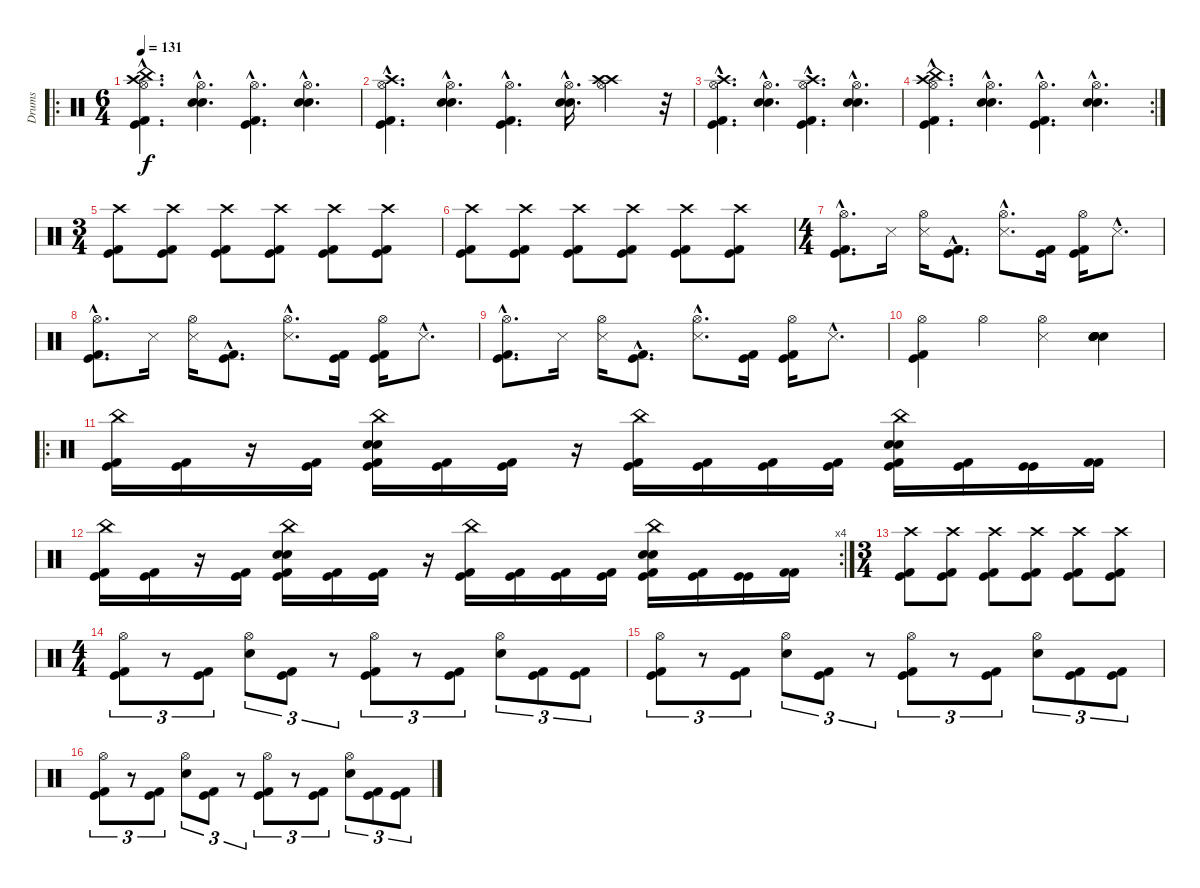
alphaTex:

\track ("Drums" "Drums") {instrument percussion}
\staff {score}
\articulation defaults
\ro
\ts (6 4)
\tempo 131
\clef neutral
\ks c
("China (hit)"{hac} "Hi-Hat (open)"{hac} "Crash high (hit)"{hac} "Kick (hit) 2"{hac} "Kick (hit)"{hac}).4{d dy f} ("Hi-Hat (open)"{hac} "Snare (hit) 2"{hac} "Electric Snare (hit)"{hac}).4{d} ("Hi-Hat (open)"{hac} "Kick (hit)"{hac} "Kick (hit) 2"{hac}).4{d} ("Hi-Hat (open)"{hac} "Snare (hit) 2"{hac} "Electric Snare (hit)"{hac}).4{d} |
("Hi-Hat (open)"{hac} "Crash high (hit)"{hac} "Kick (hit) 2"{hac} "Kick (hit)"{hac}).4{d} ("Hi-Hat (open)"{hac} "Snare (hit) 2"{hac} "Electric Snare (hit)"{hac}).4{d} ("Hi-Hat (open)"{hac} "Kick (hit)"{hac} "Kick (hit) 2"{hac}).4{d} ("Hi-Hat (open)"{hac} "Snare (hit) 2"{hac} "Electric Snare (hit)"{hac}).16{d} ("Hi-Hat (open)" "Crash high (hit)" "Crash high (hit)").4 r.32 |
("Hi-Hat (open)"{hac} "Crash high (hit)"{hac} "Kick (hit) 2"{hac} "Kick (hit)"{hac}).4{d} ("Hi-Hat (open)"{hac} "Snare (hit) 2"{hac} "Electric Snare (hit)"{hac}).4{d} ("Hi-Hat (open)"{hac} "Crash high (hit)"{hac} "Kick (hit)"{hac} "Kick (hit) 2"{hac}).4{d} ("Hi-Hat (open)"{hac} "Snare (hit) 2"{hac} "Electric Snare (hit)"{hac}).4{d} |
\rc 2
("China (hit)"{hac} "Hi-Hat (open)"{hac} "Crash high (hit)"{hac} "Kick (hit) 2"{hac} "Kick (hit)"{hac}).4{d} ("Hi-Hat (open)"{hac} "Snare (hit) 2"{hac} "Electric Snare (hit)"{hac}).4{d} ("Hi-Hat (open)"{hac} "Kick (hit)"{hac} "Kick (hit) 2"{hac}).4{d} ("Hi-Hat (open)"{hac} "Snare (hit) 2"{hac} "Electric Snare (hit)"{hac}).4{d} |
\ts (3 4)
("Crash high (hit)" "Kick (hit) 2" "Kick (hit)").8 ("Crash high (hit)" "Kick (hit)" "Kick (hit) 2").8 ("Crash high (hit)" "Kick (hit)" "Kick (hit) 2").8 ("Crash high (hit)" "Kick (hit)" "Kick (hit) 2").8 ("Crash high (hit)" "Kick (hit) 2" "Kick (hit)").8 ("Crash high (hit)" "Kick (hit) 2" "Kick (hit)").8 |
("Crash high (hit)" "Kick (hit) 2" "Kick (hit)").8 ("Crash high (hit)" "Kick (hit)" "Kick (hit) 2").8 ("Crash high (hit)" "Kick (hit)" "Kick (hit) 2").8 ("Crash high (hit)" "Kick (hit)" "Kick (hit) 2").8 ("Crash high (hit)" "Kick (hit) 2" "Kick (hit)").8 ("Crash high (hit)" "Kick (hit) 2" "Kick (hit)").8 |
\ts (4 4)
("Hi-Hat (open)"{hac} "Kick (hit)"{hac} "Kick (hit) 2"{hac}).8{d} "Snare (side stick) 3".16 ("Hi-Hat (open)" "Snare (side stick) 3").16 ("Kick (hit) 2"{hac} "Kick (hit)"{hac}).8{d} ("Hi-Hat (open)"{hac} "Snare (side stick) 3"{hac}).8{d} ("Kick (hit)" "Kick (hit) 2").16 ("Hi-Hat (open)" "Kick (hit)" "Kick (hit) 2").16 "Snare (side stick) 3"{hac}.8{d} |
("Hi-Hat (open)"{hac} "Kick (hit)"{hac} "Kick (hit) 2"{hac}).8{d} "Snare (side stick) 3".16 ("Hi-Hat (open)" "Snare (side stick) 3").16 ("Kick (hit) 2"{hac} "Kick (hit)"{hac}).8{d} ("Hi-Hat (open)"{hac} "Snare (side stick) 3"{hac}).8{d} ("Kick (hit)" "Kick (hit) 2").16 ("Hi-Hat (open)" "Kick (hit)" "Kick (hit) 2").16 "Snare (side stick) 3"{hac}.8{d} |
("Hi-Hat (open)"{hac} "Kick (hit)"{hac} "Kick (hit) 2"{hac}).8{d} "Snare (side stick) 3".16 ("Hi-Hat (open)" "Snare (side stick) 3").16 ("Kick (hit) 2"{hac} "Kick (hit)"{hac}).8{d} ("Hi-Hat (open)"{hac} "Snare (side stick) 3"{hac}).8{d} ("Kick (hit)" "Kick (hit) 2").16 ("Hi-Hat (open)" "Kick (hit)" "Kick (hit) 2").16 "Snare (side stick) 3"{hac}.8{d} |
("Hi-Hat (open)" "Kick (hit)" "Kick (hit) 2").4 "Hi-Hat (open)".4 ("Hi-Hat (open)" "Snare (side stick) 3").4 ("Snare (hit) 2" "Snare (hit) 2" "Electric Snare (hit)" "Electric Snare (hit)").4 |
\ro
("China (hit)" "Kick (hit) 2" "Kick (hit)").16 ("Kick (hit)" "Kick (hit) 2").16 r.16 ("Kick (hit)" "Kick (hit) 2").16 ("China (hit)" "Snare (hit) 2" "Electric Snare (hit)" "Kick (hit) 2" "Kick (hit)").16 ("Kick (hit) 2" "Kick (hit)").16 ("Kick (hit)" "Kick (hit) 2").16 r.16 ("China (hit)" "Kick (hit) 2" "Kick (hit)").16 ("Kick (hit) 2" "Kick (hit)").16 ("Kick (hit) 2" "Kick (hit)").16 ("Kick (hit)" "Kick (hit) 2").16 ("China (hit)" "Snare (hit) 2" "Electric Snare (hit)" "Kick (hit) 2" "Kick (hit)").16 ("Kick (hit) 2" "Kick (hit)").16 ("Kick (hit)" "Kick (hit)").16 ("Kick (hit) 2" "Kick (hit) 2").16 |
\rc 4
("China (hit)" "Kick (hit) 2" "Kick (hit)").16 ("Kick (hit)" "Kick (hit) 2").16 r.16 ("Kick (hit)" "Kick (hit) 2").16 ("China (hit)" "Snare (hit) 2" "Electric Snare (hit)" "Kick (hit) 2" "Kick (hit)").16 ("Kick (hit) 2" "Kick (hit)").16 ("Kick (hit)" "Kick (hit) 2").16 r.16 ("China (hit)" "Kick (hit) 2" "Kick (hit)").16 ("Kick (hit) 2" "Kick (hit)").16 ("Kick (hit) 2" "Kick (hit)").16 ("Kick (hit)" "Kick (hit) 2").16 ("China (hit)" "Snare (hit) 2" "Electric Snare (hit)" "Kick (hit) 2" "Kick (hit)").16 ("Kick (hit) 2" "Kick (hit)").16 ("Kick (hit)" "Kick (hit)").16 ("Kick (hit) 2" "Kick (hit) 2").16 |
\ts (3 4)
("Crash high (hit)" "Kick (hit) 2" "Kick (hit)").8 ("Crash high (hit)" "Kick (hit)" "Kick (hit) 2").8 ("Crash high (hit)" "Kick (hit)" "Kick (hit) 2").8 ("Crash high (hit)" "Kick (hit)" "Kick (hit) 2").8 ("Crash high (hit)" "Kick (hit) 2" "Kick (hit)").8 ("Crash high (hit)" "Kick (hit) 2" "Kick (hit)").8 |
\ts (4 4)
("Hi-Hat (open)" "Kick (hit) 2" "Kick (hit)").8{tu (3 2)} r.8{tu (3 2)} ("Kick (hit) 2" "Kick (hit)").8{tu (3 2)} ("Hi-Hat (open)" "Snare (hit) 2").8{tu (3 2)} ("Kick (hit) 2" "Kick (hit)").8{tu (3 2)} r.8{tu (3 2)} ("Hi-Hat (open)" "Kick (hit)" "Kick (hit) 2").8{tu (3 2)} r.8{tu (3 2)} ("Kick (hit)" "Kick (hit) 2").8{tu (3 2)} ("Hi-Hat (open)" "Snare (hit) 2").8{tu (3 2)} ("Kick (hit) 2" "Kick (hit)").8{tu (3 2)} ("Kick (hit)" "Kick (hit) 2").8{tu (3 2)} |
("Hi-Hat (open)" "Kick (hit) 2" "Kick (hit)").8{tu (3 2)} r.8{tu (3 2)} ("Kick (hit) 2" "Kick (hit)").8{tu (3 2)} ("Hi-Hat (open)" "Snare (hit) 2").8{tu (3 2)} ("Kick (hit) 2" "Kick (hit)").8{tu (3 2)} r.8{tu (3 2)} ("Hi-Hat (open)" "Kick (hit)" "Kick (hit) 2").8{tu (3 2)} r.8{tu (3 2)} ("Kick (hit)" "Kick (hit) 2").8{tu (3 2)} ("Hi-Hat (open)" "Snare (hit) 2").8{tu (3 2)} ("Kick (hit) 2" "Kick (hit)").8{tu (3 2)} ("Kick (hit)" "Kick (hit) 2").8{tu (3 2)} |
("Hi-Hat (open)" "Kick (hit) 2" "Kick (hit)").8{tu (3 2)} r.8{tu (3 2)} ("Kick (hit) 2" "Kick (hit)").8{tu (3 2)} ("Hi-Hat (open)" "Snare (hit) 2").8{tu (3 2)} ("Kick (hit) 2" "Kick (hit)").8{tu (3 2)} r.8{tu (3 2)} ("Hi-Hat (open)" "Kick (hit)" "Kick (hit) 2").8{tu (3 2)} r.8{tu (3 2)} ("Kick (hit)" "Kick (hit) 2").8{tu (3 2)} ("Hi-Hat (open)" "Snare (hit) 2").8{tu (3 2)} ("Kick (hit) 2" "Kick (hit)").8{tu (3 2)} ("Kick (hit)" "Kick (hit) 2").8{tu (3 2)}
